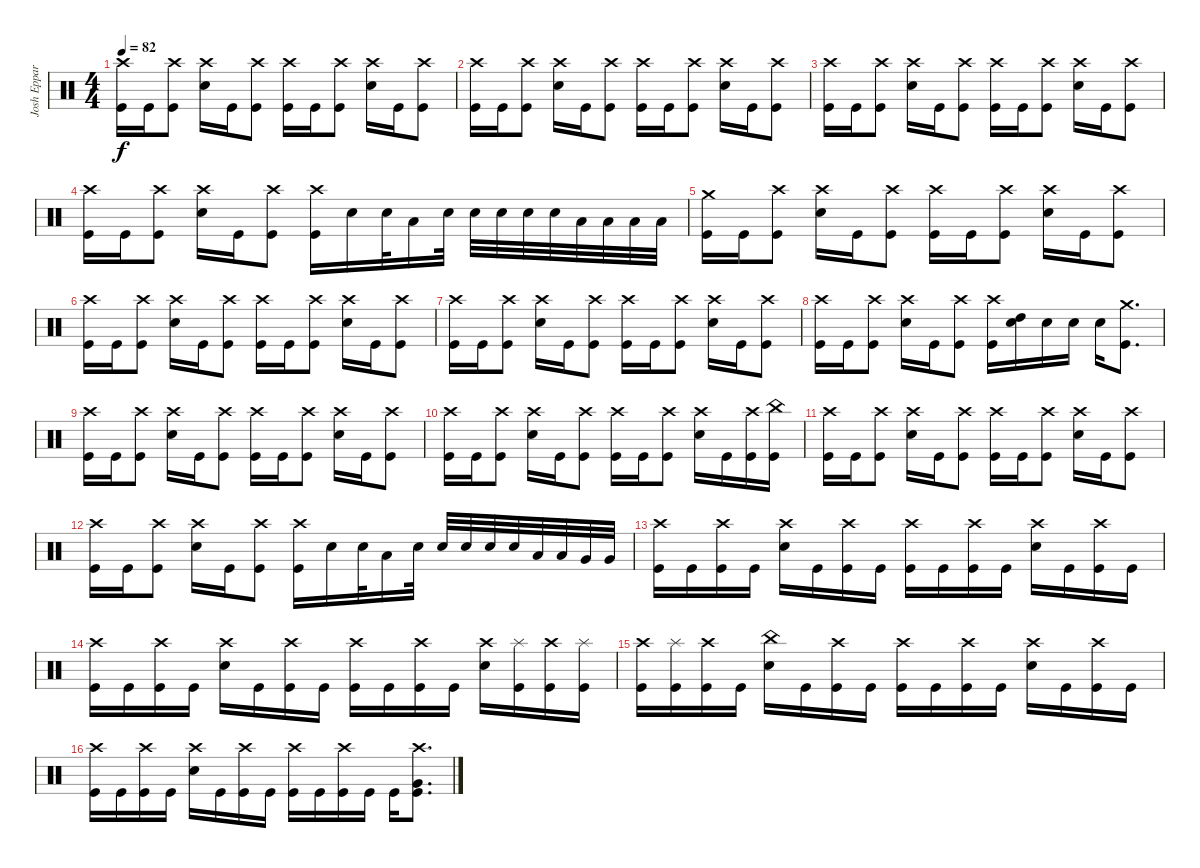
\track ("Josh Eppard" "Josh Eppar") {instrument percussion}
\staff {score}
\articulation defaults
\ts (4 4)
\tempo 82
\clef neutral
\ks c
("Crash high (hit)" "Kick (hit)").16{dy f} "Kick (hit)".16 ("Crash high (hit)" "Kick (hit)").8 ("Crash high (hit)" "Snare (hit) 2").16 "Kick (hit)".16 ("Crash high (hit)" "Kick (hit)").8 ("Crash high (hit)" "Kick (hit)").16 "Kick (hit)".16 ("Crash high (hit)" "Kick (hit)").8 ("Crash high (hit)" "Snare (hit) 2").16 "Kick (hit)".16 ("Crash high (hit)" "Kick (hit)").8 |
("Crash high (hit)" "Kick (hit)").16 "Kick (hit)".16 ("Crash high (hit)" "Kick (hit)").8 ("Crash high (hit)" "Snare (hit) 2").16 "Kick (hit)".16 ("Crash high (hit)" "Kick (hit)").8 ("Crash high (hit)" "Kick (hit)").16 "Kick (hit)".16 ("Crash high (hit)" "Kick (hit)").8 ("Crash high (hit)" "Snare (hit) 2").16 "Kick (hit)".16 ("Crash high (hit)" "Kick (hit)").8 |
("Crash high (hit)" "Kick (hit)").16 "Kick (hit)".16 ("Crash high (hit)" "Kick (hit)").8 ("Crash high (hit)" "Snare (hit) 2").16 "Kick (hit)".16 ("Crash high (hit)" "Kick (hit)").8 ("Crash high (hit)" "Kick (hit)").16 "Kick (hit)".16 ("Crash high (hit)" "Kick (hit)").8 ("Crash high (hit)" "Snare (hit) 2").16 "Kick (hit)".16 ("Crash high (hit)" "Kick (hit)").8 |
("Crash high (hit)" "Kick (hit)").16 "Kick (hit)".16 ("Crash high (hit)" "Kick (hit)").8 ("Crash high (hit)" "Snare (hit) 2").16 "Kick (hit)".16 ("Crash high (hit)" "Kick (hit)").8 ("Crash high (hit)" "Kick (hit)").16 "Snare (hit) 2".16 "Snare (hit) 2".32 "Low Tom (hit)".16 "Snare (hit) 2".32 "Snare (hit) 2".32 "Snare (hit) 2".32 "Snare (hit) 2".32 "Snare (hit) 2".32 "Low Tom (hit)".32 "Low Tom (hit)".32 "Low Tom (hit)".32 "Low Tom (hit)".32 |
("Kick (hit)" "Crash medium (hit)").16 "Kick (hit)".16 ("Crash high (hit)" "Kick (hit)").8 ("Crash high (hit)" "Snare (hit) 2").16 "Kick (hit)".16 ("Crash high (hit)" "Kick (hit)").8 ("Crash high (hit)" "Kick (hit)").16 "Kick (hit)".16 ("Crash high (hit)" "Kick (hit)").8 ("Crash high (hit)" "Snare (hit) 2").16 "Kick (hit)".16 ("Crash high (hit)" "Kick (hit)").8 |
("Crash high (hit)" "Kick (hit)").16 "Kick (hit)".16 ("Crash high (hit)" "Kick (hit)").8 ("Crash high (hit)" "Snare (hit) 2").16 "Kick (hit)".16 ("Crash high (hit)" "Kick (hit)").8 ("Crash high (hit)" "Kick (hit)").16 "Kick (hit)".16 ("Crash high (hit)" "Kick (hit)").8 ("Crash high (hit)" "Snare (hit) 2").16 "Kick (hit)".16 ("Crash high (hit)" "Kick (hit)").8 |
("Crash high (hit)" "Kick (hit)").16 "Kick (hit)".16 ("Crash high (hit)" "Kick (hit)").8 ("Crash high (hit)" "Snare (hit) 2").16 "Kick (hit)".16 ("Crash high (hit)" "Kick (hit)").8 ("Crash high (hit)" "Kick (hit)").16 "Kick (hit)".16 ("Crash high (hit)" "Kick (hit)").8 ("Crash high (hit)" "Snare (hit) 2").16 "Kick (hit)".16 ("Crash high (hit)" "Kick (hit)").8 |
("Crash high (hit)" "Kick (hit)").16 "Kick (hit)".16 ("Crash high (hit)" "Kick (hit)").8 ("Crash high (hit)" "Snare (hit) 2").16 "Kick (hit)".16 ("Crash high (hit)" "Kick (hit)").8 ("Crash high (hit)" "Kick (hit)").16 ("Snare (hit) 2" "High Tom (hit)").16 "Snare (hit) 2".16 "Snare (hit) 2".16 "Snare (hit) 2".16 ("Kick (hit)" "Crash medium (hit)").8{d} |
("Crash high (hit)" "Kick (hit)").16 "Kick (hit)".16 ("Crash high (hit)" "Kick (hit)").8 ("Crash high (hit)" "Snare (hit) 2").16 "Kick (hit)".16 ("Crash high (hit)" "Kick (hit)").8 ("Crash high (hit)" "Kick (hit)").16 "Kick (hit)".16 ("Crash high (hit)" "Kick (hit)").8 ("Crash high (hit)" "Snare (hit) 2").16 "Kick (hit)".16 ("Crash high (hit)" "Kick (hit)").8 |
("Crash high (hit)" "Kick (hit)").16 "Kick (hit)".16 ("Crash high (hit)" "Kick (hit)").8 ("Crash high (hit)" "Snare (hit) 2").16 "Kick (hit)".16 ("Crash high (hit)" "Kick (hit)").8 ("Crash high (hit)" "Kick (hit)").16 "Kick (hit)".16 ("Crash high (hit)" "Kick (hit)").8 ("Crash high (hit)" "Snare (hit) 2").16 "Kick (hit)".16 ("Crash high (hit)" "Kick (hit)").16 ("China (hit)" "Kick (hit)").16 |
("Crash high (hit)" "Kick (hit)").16 "Kick (hit)".16 ("Crash high (hit)" "Kick (hit)").8 ("Crash high (hit)" "Snare (hit) 2").16 "Kick (hit)".16 ("Crash high (hit)" "Kick (hit)").8 ("Crash high (hit)" "Kick (hit)").16 "Kick (hit)".16 ("Crash high (hit)" "Kick (hit)").8 ("Crash high (hit)" "Snare (hit) 2").16 "Kick (hit)".16 ("Crash high (hit)" "Kick (hit)").8 |
("Crash high (hit)" "Kick (hit)").16 "Kick (hit)".16 ("Crash high (hit)" "Kick (hit)").8 ("Crash high (hit)" "Snare (hit) 2").16 "Kick (hit)".16 ("Crash high (hit)" "Kick (hit)").8 ("Crash high (hit)" "Kick (hit)").16 "Snare (hit) 2".16 "Snare (hit) 2".32 "Low Tom (hit)".16 "Snare (hit) 2".32 "Snare (hit) 2".32 "Snare (hit) 2".32 "Snare (hit) 2".32 "Snare (hit) 2".32 "Low Tom (hit)".32 "Low Tom (hit)".32 "Very Low Tom (hit)".32 "Very Low Tom (hit)".32 |
("Crash high (hit)" "Kick (hit)").16 "Kick (hit)".16 ("Crash high (hit)" "Kick (hit)").16 "Kick (hit)".16 ("Crash high (hit)" "Snare (hit) 2").16 "Kick (hit)".16 ("Crash high (hit)" "Kick (hit)").16 "Kick (hit)".16 ("Crash high (hit)" "Kick (hit)").16 "Kick (hit)".16 ("Crash high (hit)" "Kick (hit)").16 "Kick (hit)".16 ("Crash high (hit)" "Snare (hit) 2").16 "Kick (hit)".16 ("Crash high (hit)" "Kick (hit)").16 "Kick (hit)".16 |
("Crash high (hit)" "Kick (hit)").16 "Kick (hit)".16 ("Crash high (hit)" "Kick (hit)").16 "Kick (hit)".16 ("Crash high (hit)" "Snare (hit) 2").16 "Kick (hit)".16 ("Crash high (hit)" "Kick (hit)").16 "Kick (hit)".16 ("Crash high (hit)" "Kick (hit)").16 "Kick (hit)".16 ("Crash high (hit)" "Kick (hit)").16 "Kick (hit)".16 ("Crash high (hit)" "Snare (hit) 2").16 ("Kick (hit)" "Splash (hit)").16 ("Crash high (hit)" "Kick (hit)").16 ("Kick (hit)" "Splash (hit)").16 |
("Crash high (hit)" "Kick (hit)").16 ("Kick (hit)" "Splash (hit)").16 ("Crash high (hit)" "Kick (hit)").16 "Kick (hit)".16 ("Snare (hit) 2" "China (hit)").16 "Kick (hit)".16 ("Crash high (hit)" "Kick (hit)").16 "Kick (hit)".16 ("Crash high (hit)" "Kick (hit)").16 "Kick (hit)".16 ("Crash high (hit)" "Kick (hit)").16 "Kick (hit)".16 ("Crash high (hit)" "Snare (hit) 2").16 "Kick (hit)".16 ("Crash high (hit)" "Kick (hit)").16 "Kick (hit)".16 |
("Crash high (hit)" "Kick (hit)").16 "Kick (hit)".16 ("Crash high (hit)" "Kick (hit)").16 "Kick (hit)".16 ("Crash high (hit)" "Snare (hit) 2").16 "Kick (hit)".16 ("Crash high (hit)" "Kick (hit)").16 "Kick (hit)".16 ("Crash high (hit)" "Kick (hit)").16 "Kick (hit)".16 ("Crash high (hit)" "Kick (hit)").16 "Kick (hit)".16 "Kick (hit)".16 ("Crash high (hit)" "Kick (hit)" "Very Low Tom (hit)").8{d}
